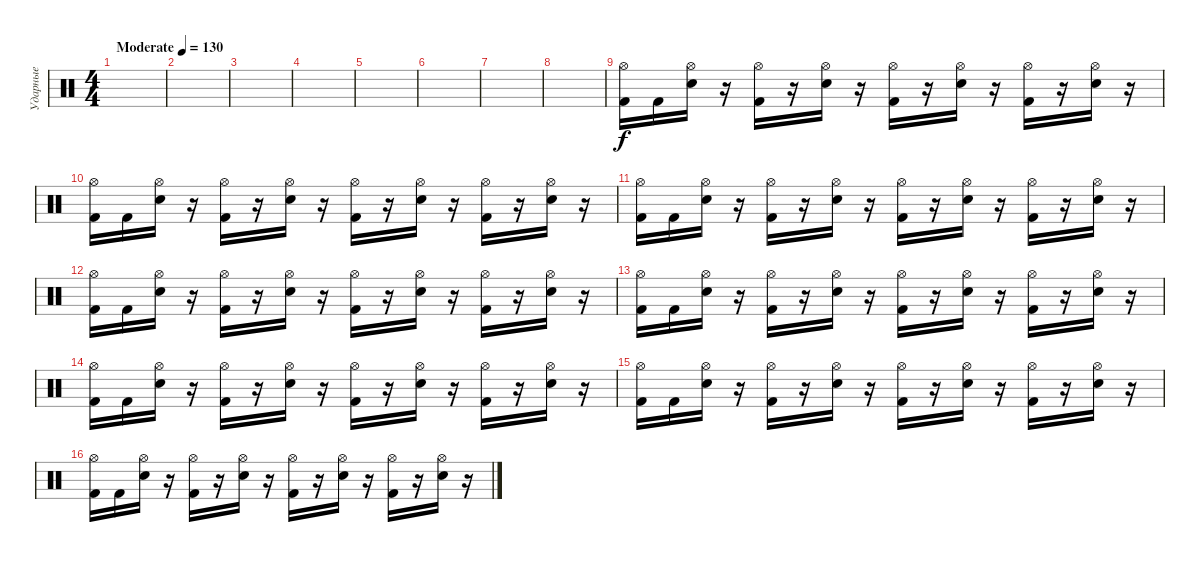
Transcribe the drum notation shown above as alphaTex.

\track ("Ударные" "Ударные") {instrument percussion}
\staff {score}
\articulation defaults
\ts (4 4)
\tempo (130 "Moderate")
\clef neutral
\ks c
|
|
|
|
|
|
|
|
("Hi-Hat (open)" "Kick (hit) 2").16 "Kick (hit) 2".16 ("Hi-Hat (open)" "Electric Snare (hit)").16 r.16 ("Hi-Hat (open)" "Kick (hit) 2").16 r.16 ("Hi-Hat (open)" "Electric Snare (hit)").16 r.16 ("Hi-Hat (open)" "Kick (hit) 2").16 r.16 ("Hi-Hat (open)" "Electric Snare (hit)").16 r.16 ("Hi-Hat (open)" "Kick (hit) 2").16 r.16 ("Hi-Hat (open)" "Electric Snare (hit)").16 r.16 |
("Hi-Hat (open)" "Kick (hit) 2").16 "Kick (hit) 2".16 ("Hi-Hat (open)" "Electric Snare (hit)").16 r.16 ("Hi-Hat (open)" "Kick (hit) 2").16 r.16 ("Hi-Hat (open)" "Electric Snare (hit)").16 r.16 ("Hi-Hat (open)" "Kick (hit) 2").16 r.16 ("Hi-Hat (open)" "Electric Snare (hit)").16 r.16 ("Hi-Hat (open)" "Kick (hit) 2").16 r.16 ("Hi-Hat (open)" "Electric Snare (hit)").16 r.16 |
("Hi-Hat (open)" "Kick (hit) 2").16 "Kick (hit) 2".16 ("Hi-Hat (open)" "Electric Snare (hit)").16 r.16 ("Hi-Hat (open)" "Kick (hit) 2").16 r.16 ("Hi-Hat (open)" "Electric Snare (hit)").16 r.16 ("Hi-Hat (open)" "Kick (hit) 2").16 r.16 ("Hi-Hat (open)" "Electric Snare (hit)").16 r.16 ("Hi-Hat (open)" "Kick (hit) 2").16 r.16 ("Hi-Hat (open)" "Electric Snare (hit)").16 r.16 |
("Hi-Hat (open)" "Kick (hit) 2").16 "Kick (hit) 2".16 ("Hi-Hat (open)" "Electric Snare (hit)").16 r.16 ("Hi-Hat (open)" "Kick (hit) 2").16 r.16 ("Hi-Hat (open)" "Electric Snare (hit)").16 r.16 ("Hi-Hat (open)" "Kick (hit) 2").16 r.16 ("Hi-Hat (open)" "Electric Snare (hit)").16 r.16 ("Hi-Hat (open)" "Kick (hit) 2").16 r.16 ("Hi-Hat (open)" "Electric Snare (hit)").16 r.16 |
("Hi-Hat (open)" "Kick (hit) 2").16 "Kick (hit) 2".16 ("Hi-Hat (open)" "Electric Snare (hit)").16 r.16 ("Hi-Hat (open)" "Kick (hit) 2").16 r.16 ("Hi-Hat (open)" "Electric Snare (hit)").16 r.16 ("Hi-Hat (open)" "Kick (hit) 2").16 r.16 ("Hi-Hat (open)" "Electric Snare (hit)").16 r.16 ("Hi-Hat (open)" "Kick (hit) 2").16 r.16 ("Hi-Hat (open)" "Electric Snare (hit)").16 r.16 |
("Hi-Hat (open)" "Kick (hit) 2").16 "Kick (hit) 2".16 ("Hi-Hat (open)" "Electric Snare (hit)").16 r.16 ("Hi-Hat (open)" "Kick (hit) 2").16 r.16 ("Hi-Hat (open)" "Electric Snare (hit)").16 r.16 ("Hi-Hat (open)" "Kick (hit) 2").16 r.16 ("Hi-Hat (open)" "Electric Snare (hit)").16 r.16 ("Hi-Hat (open)" "Kick (hit) 2").16 r.16 ("Hi-Hat (open)" "Electric Snare (hit)").16 r.16 |
("Hi-Hat (open)" "Kick (hit) 2").16 "Kick (hit) 2".16 ("Hi-Hat (open)" "Electric Snare (hit)").16 r.16 ("Hi-Hat (open)" "Kick (hit) 2").16 r.16 ("Hi-Hat (open)" "Electric Snare (hit)").16 r.16 ("Hi-Hat (open)" "Kick (hit) 2").16 r.16 ("Hi-Hat (open)" "Electric Snare (hit)").16 r.16 ("Hi-Hat (open)" "Kick (hit) 2").16 r.16 ("Hi-Hat (open)" "Electric Snare (hit)").16 r.16 |
("Hi-Hat (open)" "Kick (hit) 2").16 "Kick (hit) 2".16 ("Hi-Hat (open)" "Electric Snare (hit)").16 r.16 ("Hi-Hat (open)" "Kick (hit) 2").16 r.16 ("Hi-Hat (open)" "Electric Snare (hit)").16 r.16 ("Hi-Hat (open)" "Kick (hit) 2").16 r.16 ("Hi-Hat (open)" "Electric Snare (hit)").16 r.16 ("Hi-Hat (open)" "Kick (hit) 2").16 r.16 ("Hi-Hat (open)" "Electric Snare (hit)").16 r.16
